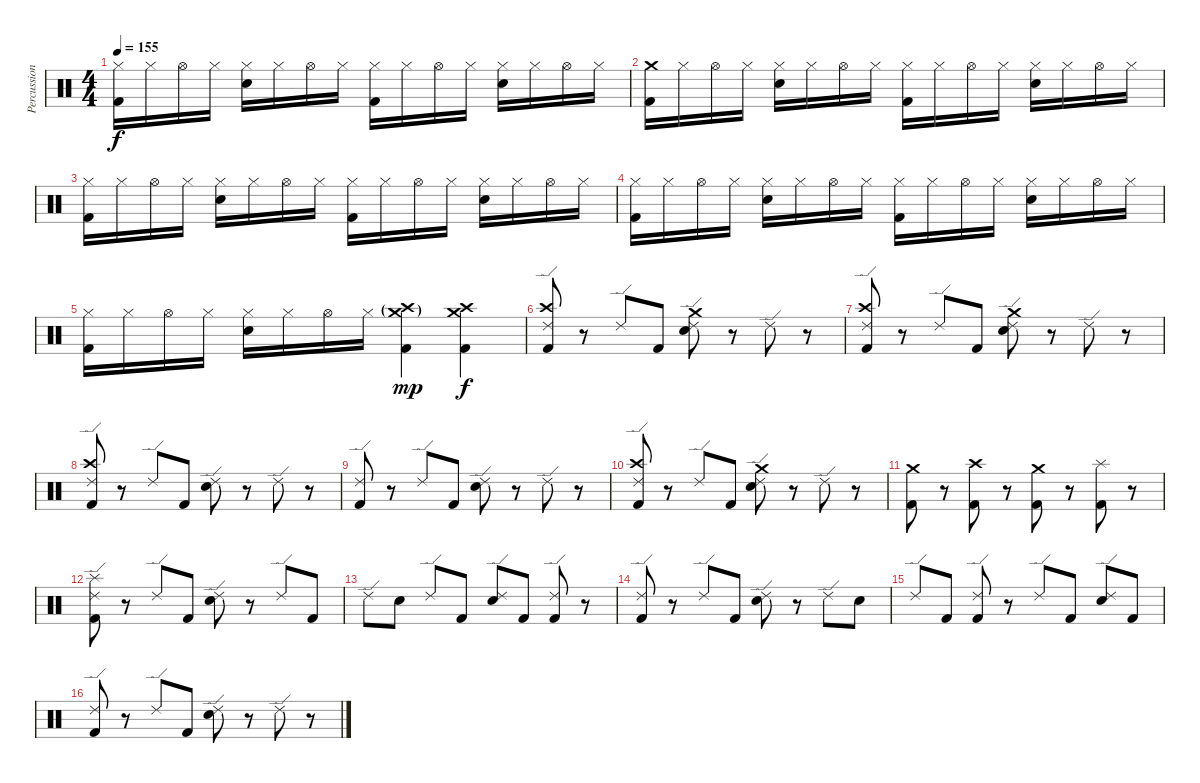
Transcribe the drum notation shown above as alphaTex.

\track ("Percussion" "Percussion") {instrument percussion}
\staff {score}
\articulation defaults
\ts (4 4)
\tempo 155
\clef neutral
\ks c
("Hi-Hat (closed)" "Kick (hit) 2").16{dy f} "Hi-Hat (closed)".16 "Hi-Hat (open)".16 "Hi-Hat (closed)".16 ("Hi-Hat (closed)" "Electric Snare (hit)").16 "Hi-Hat (closed)".16 "Hi-Hat (open)".16 "Hi-Hat (closed)".16 ("Hi-Hat (closed)" "Kick (hit) 2").16 "Hi-Hat (closed)".16 "Hi-Hat (open)".16 "Hi-Hat (closed)".16 ("Hi-Hat (closed)" "Electric Snare (hit)").16 "Hi-Hat (closed)".16 "Hi-Hat (open)".16 "Hi-Hat (closed)".16 |
("Crash medium (hit)" "Kick (hit) 2").16 "Hi-Hat (closed)".16 "Hi-Hat (open)".16 "Hi-Hat (closed)".16 ("Hi-Hat (closed)" "Electric Snare (hit)").16 "Hi-Hat (closed)".16 "Hi-Hat (open)".16 "Hi-Hat (closed)".16 ("Hi-Hat (closed)" "Kick (hit) 2").16 "Hi-Hat (closed)".16 "Hi-Hat (open)".16 "Hi-Hat (closed)".16 ("Hi-Hat (closed)" "Electric Snare (hit)").16 "Hi-Hat (closed)".16 "Hi-Hat (open)".16 "Hi-Hat (closed)".16 |
("Hi-Hat (closed)" "Kick (hit) 2").16 "Hi-Hat (closed)".16 "Hi-Hat (open)".16 "Hi-Hat (closed)".16 ("Hi-Hat (closed)" "Electric Snare (hit)").16 "Hi-Hat (closed)".16 "Hi-Hat (open)".16 "Hi-Hat (closed)".16 ("Hi-Hat (closed)" "Kick (hit) 2").16 "Hi-Hat (closed)".16 "Hi-Hat (open)".16 "Hi-Hat (closed)".16 ("Hi-Hat (closed)" "Electric Snare (hit)").16 "Hi-Hat (closed)".16 "Hi-Hat (open)".16 "Hi-Hat (closed)".16 |
("Hi-Hat (closed)" "Kick (hit) 2").16 "Hi-Hat (closed)".16 "Hi-Hat (open)".16 "Hi-Hat (closed)".16 ("Hi-Hat (closed)" "Electric Snare (hit)").16 "Hi-Hat (closed)".16 "Hi-Hat (open)".16 "Hi-Hat (closed)".16 ("Hi-Hat (closed)" "Kick (hit) 2").16 "Hi-Hat (closed)".16 "Hi-Hat (open)".16 "Hi-Hat (closed)".16 ("Hi-Hat (closed)" "Electric Snare (hit)").16 "Hi-Hat (closed)".16 "Hi-Hat (open)".16 "Hi-Hat (closed)".16 |
("Hi-Hat (closed)" "Kick (hit) 2").16 "Hi-Hat (closed)".16 "Hi-Hat (open)".16 "Hi-Hat (closed)".16 ("Hi-Hat (closed)" "Electric Snare (hit)").16 "Hi-Hat (closed)".16 "Hi-Hat (open)".16 "Hi-Hat (closed)".16 ("Crash high (hit)"{g} "Crash medium (hit)"{g} "Kick (hit) 2").4{dy mp} ("Crash high (hit)" "Crash medium (hit)" "Kick (hit) 2").4{dy f} |
("Ride (edge) 2" "Crash high (hit)" "Kick (hit) 2").8 r.8 "Ride (edge) 2".8 "Kick (hit) 2".8 ("Ride (edge) 2" "Crash medium (hit)" "Electric Snare (hit)").8 r.8 "Ride (edge) 2".8 r.8 |
("Ride (edge) 2" "Crash high (hit)" "Kick (hit) 2").8 r.8 "Ride (edge) 2".8 "Kick (hit) 2".8 ("Ride (edge) 2" "Crash medium (hit)" "Electric Snare (hit)").8 r.8 "Ride (edge) 2".8 r.8 |
("Ride (edge) 2" "Crash high (hit)" "Kick (hit) 2").8 r.8 "Ride (edge) 2".8 "Kick (hit) 2".8 ("Ride (edge) 2" "Electric Snare (hit)").8 r.8 "Ride (edge) 2".8 r.8 |
("Ride (edge) 2" "Kick (hit) 2").8 r.8 "Ride (edge) 2".8 "Kick (hit) 2".8 ("Ride (edge) 2" "Electric Snare (hit)").8 r.8 "Ride (edge) 2".8 r.8 |
("Ride (edge) 2" "Crash high (hit)" "Kick (hit) 2").8 r.8 "Ride (edge) 2".8 "Kick (hit) 2".8 ("Ride (edge) 2" "Crash medium (hit)" "Electric Snare (hit)").8 r.8 "Ride (edge) 2".8 r.8 |
("Crash medium (hit)" "Kick (hit) 2").8 r.8 ("Crash high (hit)" "Kick (hit) 2").8 r.8 ("Crash medium (hit)" "Kick (hit) 2").8 r.8 ("Splash (hit)" "Kick (hit) 2").8 r.8 |
("Ride (edge) 2" "Splash (hit)" "Kick (hit) 2").8 r.8 "Ride (edge) 2".8 "Kick (hit) 2".8 ("Ride (edge) 2" "Electric Snare (hit)").8 r.8 "Ride (edge) 2".8 "Kick (hit) 2".8 |
"Ride (edge) 2".8 "Electric Snare (hit)".8 "Ride (edge) 2".8 "Kick (hit) 2".8 ("Ride (edge) 2" "Electric Snare (hit)").8 "Kick (hit) 2".8 ("Ride (edge) 2" "Kick (hit) 2").8 r.8 |
("Ride (edge) 2" "Kick (hit) 2").8 r.8 "Ride (edge) 2".8 "Kick (hit) 2".8 ("Ride (edge) 2" "Electric Snare (hit)").8 r.8 "Ride (edge) 2".8 "Electric Snare (hit)".8 |
"Ride (edge) 2".8 "Kick (hit) 2".8 ("Ride (edge) 2" "Kick (hit) 2").8 r.8 "Ride (edge) 2".8 "Kick (hit) 2".8 ("Ride (edge) 2" "Electric Snare (hit)").8 "Kick (hit) 2".8 |
("Ride (edge) 2" "Kick (hit) 2").8 r.8 "Ride (edge) 2".8 "Kick (hit) 2".8 ("Ride (edge) 2" "Electric Snare (hit)").8 r.8 "Ride (edge) 2".8 r.8
